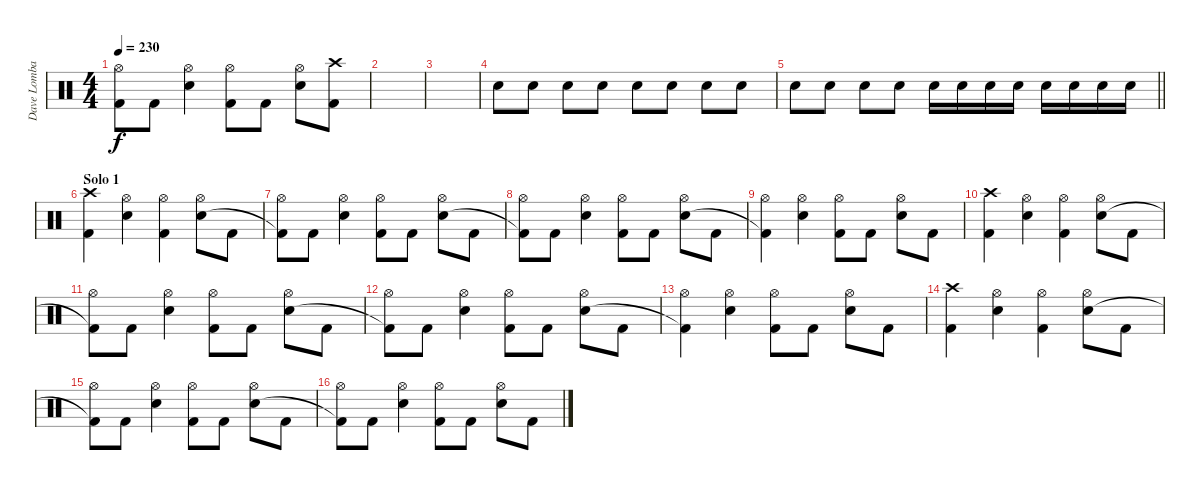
\track ("Dave Lombardo" "Dave Lomba") {instrument percussion}
\staff {score}
\articulation defaults
\ts (4 4)
\tempo 230
\clef neutral
\ks c
("Hi-Hat (open)" "Kick (hit) 2"{t}).8{dy f} "Kick (hit) 2".8 ("Hi-Hat (open)" "Snare (hit) 2").4 ("Hi-Hat (open)" "Kick (hit) 2").8 "Kick (hit) 2".8 ("Hi-Hat (open)" "Snare (hit) 2").8 ("Crash high (hit)" "Kick (hit) 2").8 |
|
|
"Snare (hit) 2".8 "Snare (hit) 2".8 "Snare (hit) 2".8 "Snare (hit) 2".8 "Snare (hit) 2".8 "Snare (hit) 2".8 "Snare (hit) 2".8 "Snare (hit) 2".8 |
\barLineRight lightlight "Snare (hit) 2".8 "Snare (hit) 2".8 "Snare (hit) 2".8 "Snare (hit) 2".8 "Snare (hit) 2".16 "Snare (hit) 2".16 "Snare (hit) 2".16 "Snare (hit) 2".16 "Snare (hit) 2".16 "Snare (hit) 2".16 "Snare (hit) 2".16 "Snare (hit) 2".16
|
\section ("" "Solo 1")
("Crash high (hit)" "Kick (hit) 2").4 ("Hi-Hat (open)" "Snare (hit) 2").4 ("Hi-Hat (open)" "Kick (hit) 2").4 ("Hi-Hat (open)" "Snare (hit) 2").8 "Kick (hit) 2".8 |
("Hi-Hat (open)" "Kick (hit) 2"{t}).8 "Kick (hit) 2".8 ("Hi-Hat (open)" "Snare (hit) 2").4 ("Hi-Hat (open)" "Kick (hit) 2").8 "Kick (hit) 2".8 ("Hi-Hat (open)" "Snare (hit) 2").8 "Kick (hit) 2".8 |
("Hi-Hat (open)" "Kick (hit) 2"{t}).8 "Kick (hit) 2".8 ("Hi-Hat (open)" "Snare (hit) 2").4 ("Hi-Hat (open)" "Kick (hit) 2").8 "Kick (hit) 2".8 ("Hi-Hat (open)" "Snare (hit) 2").8 "Kick (hit) 2".8 |
("Hi-Hat (open)" "Kick (hit) 2"{t}).4 ("Hi-Hat (open)" "Snare (hit) 2").4 ("Hi-Hat (open)" "Kick (hit) 2").8 "Kick (hit) 2".8 ("Hi-Hat (open)" "Snare (hit) 2").8 "Kick (hit) 2".8 |
("Crash high (hit)" "Kick (hit) 2").4 ("Hi-Hat (open)" "Snare (hit) 2").4 ("Hi-Hat (open)" "Kick (hit) 2").4 ("Hi-Hat (open)" "Snare (hit) 2").8 "Kick (hit) 2".8 |
("Hi-Hat (open)" "Kick (hit) 2"{t}).8 "Kick (hit) 2".8 ("Hi-Hat (open)" "Snare (hit) 2").4 ("Hi-Hat (open)" "Kick (hit) 2").8 "Kick (hit) 2".8 ("Hi-Hat (open)" "Snare (hit) 2").8 "Kick (hit) 2".8 |
("Hi-Hat (open)" "Kick (hit) 2"{t}).8 "Kick (hit) 2".8 ("Hi-Hat (open)" "Snare (hit) 2").4 ("Hi-Hat (open)" "Kick (hit) 2").8 "Kick (hit) 2".8 ("Hi-Hat (open)" "Snare (hit) 2").8 "Kick (hit) 2".8 |
("Hi-Hat (open)" "Kick (hit) 2"{t}).4 ("Hi-Hat (open)" "Snare (hit) 2").4 ("Hi-Hat (open)" "Kick (hit) 2").8 "Kick (hit) 2".8 ("Hi-Hat (open)" "Snare (hit) 2").8 "Kick (hit) 2".8 |
("Crash high (hit)" "Kick (hit) 2").4 ("Hi-Hat (open)" "Snare (hit) 2").4 ("Hi-Hat (open)" "Kick (hit) 2").4 ("Hi-Hat (open)" "Snare (hit) 2").8 "Kick (hit) 2".8 |
("Hi-Hat (open)" "Kick (hit) 2"{t}).8 "Kick (hit) 2".8 ("Hi-Hat (open)" "Snare (hit) 2").4 ("Hi-Hat (open)" "Kick (hit) 2").8 "Kick (hit) 2".8 ("Hi-Hat (open)" "Snare (hit) 2").8 "Kick (hit) 2".8 |
("Hi-Hat (open)" "Kick (hit) 2"{t}).8 "Kick (hit) 2".8 ("Hi-Hat (open)" "Snare (hit) 2").4 ("Hi-Hat (open)" "Kick (hit) 2").8 "Kick (hit) 2".8 ("Hi-Hat (open)" "Snare (hit) 2").8 "Kick (hit) 2".8
